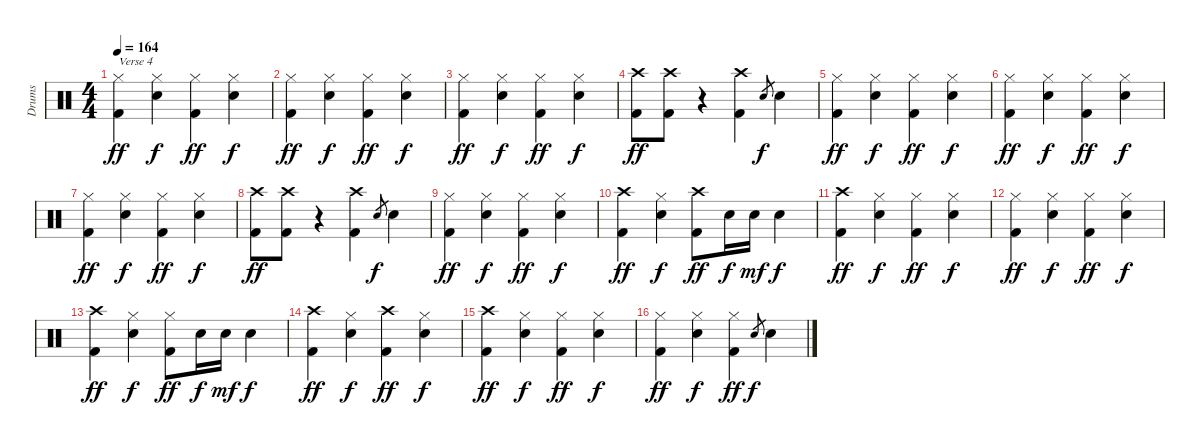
\track ("Drums" "Drums") {instrument percussion}
\staff {score}
\articulation defaults
\ts (4 4)
\tempo 164
\clef neutral
\ks c
("Hi-Hat (closed)" "Kick (hit) 2").4{txt "Verse 4" dy ff} ("Hi-Hat (closed)" "Snare (hit) 2").4{dy f} ("Hi-Hat (closed)" "Kick (hit) 2").4{dy ff} ("Hi-Hat (closed)" "Snare (hit) 2").4{dy f} |
("Hi-Hat (closed)" "Kick (hit) 2").4{dy ff} ("Hi-Hat (closed)" "Snare (hit) 2").4{dy f} ("Hi-Hat (closed)" "Kick (hit) 2").4{dy ff} ("Hi-Hat (closed)" "Snare (hit) 2").4{dy f} |
("Hi-Hat (closed)" "Kick (hit) 2").4{dy ff} ("Hi-Hat (closed)" "Snare (hit) 2").4{dy f} ("Hi-Hat (closed)" "Kick (hit) 2").4{dy ff} ("Hi-Hat (closed)" "Snare (hit) 2").4{dy f} |
("Crash high (hit)" "Kick (hit) 2").8{dy ff} ("Crash high (hit)" "Kick (hit) 2").8 r.4 ("Crash high (hit)" "Kick (hit) 2").4 "Snare (hit) 2".8{gr dy f} "Snare (hit) 2".4 |
("Hi-Hat (closed)" "Kick (hit) 2").4{dy ff} ("Hi-Hat (closed)" "Snare (hit) 2").4{dy f} ("Hi-Hat (closed)" "Kick (hit) 2").4{dy ff} ("Hi-Hat (closed)" "Snare (hit) 2").4{dy f} |
("Hi-Hat (closed)" "Kick (hit) 2").4{dy ff} ("Hi-Hat (closed)" "Snare (hit) 2").4{dy f} ("Hi-Hat (closed)" "Kick (hit) 2").4{dy ff} ("Hi-Hat (closed)" "Snare (hit) 2").4{dy f} |
("Hi-Hat (closed)" "Kick (hit) 2").4{dy ff} ("Hi-Hat (closed)" "Snare (hit) 2").4{dy f} ("Hi-Hat (closed)" "Kick (hit) 2").4{dy ff} ("Hi-Hat (closed)" "Snare (hit) 2").4{dy f} |
("Crash high (hit)" "Kick (hit) 2").8{dy ff} ("Crash high (hit)" "Kick (hit) 2").8 r.4 ("Crash high (hit)" "Kick (hit) 2").4 "Snare (hit) 2".8{gr dy f} "Snare (hit) 2".4 |
("Hi-Hat (closed)" "Kick (hit) 2").4{dy ff} ("Hi-Hat (closed)" "Snare (hit) 2").4{dy f} ("Hi-Hat (closed)" "Kick (hit) 2").4{dy ff} ("Hi-Hat (closed)" "Snare (hit) 2").4{dy f} |
("Crash high (hit)" "Kick (hit) 2").4{dy ff} ("Hi-Hat (closed)" "Snare (hit) 2").4{dy f} ("Crash high (hit)" "Kick (hit) 2").8{dy ff} "Snare (hit) 2".16{dy f} "Snare (hit) 2".16{dy mf} "Snare (hit) 2".4{dy f} |
("Crash high (hit)" "Kick (hit) 2").4{dy ff} ("Hi-Hat (closed)" "Snare (hit) 2").4{dy f} ("Hi-Hat (closed)" "Kick (hit) 2").4{dy ff} ("Hi-Hat (closed)" "Snare (hit) 2").4{dy f} |
("Hi-Hat (closed)" "Kick (hit) 2").4{dy ff} ("Hi-Hat (closed)" "Snare (hit) 2").4{dy f} ("Hi-Hat (closed)" "Kick (hit) 2").4{dy ff} ("Hi-Hat (closed)" "Snare (hit) 2").4{dy f} |
("Crash high (hit)" "Kick (hit) 2").4{dy ff} ("Hi-Hat (closed)" "Snare (hit) 2").4{dy f} ("Hi-Hat (closed)" "Kick (hit) 2").8{dy ff} "Snare (hit) 2".16{dy f} "Snare (hit) 2".16{dy mf} "Snare (hit) 2".4{dy f} |
("Crash high (hit)" "Kick (hit) 2").4{dy ff} ("Hi-Hat (closed)" "Snare (hit) 2").4{dy f} ("Crash high (hit)" "Kick (hit) 2").4{dy ff} ("Hi-Hat (closed)" "Snare (hit) 2").4{dy f} |
("Crash high (hit)" "Kick (hit) 2").4{dy ff} ("Hi-Hat (closed)" "Snare (hit) 2").4{dy f} ("Hi-Hat (closed)" "Kick (hit) 2").4{dy ff} ("Hi-Hat (closed)" "Snare (hit) 2").4{dy f} |
("Hi-Hat (closed)" "Kick (hit) 2").4{dy ff} ("Hi-Hat (closed)" "Snare (hit) 2").4{dy f} ("Hi-Hat (closed)" "Kick (hit) 2").4{dy ff} "Snare (hit) 2".8{gr dy f} "Snare (hit) 2".4
